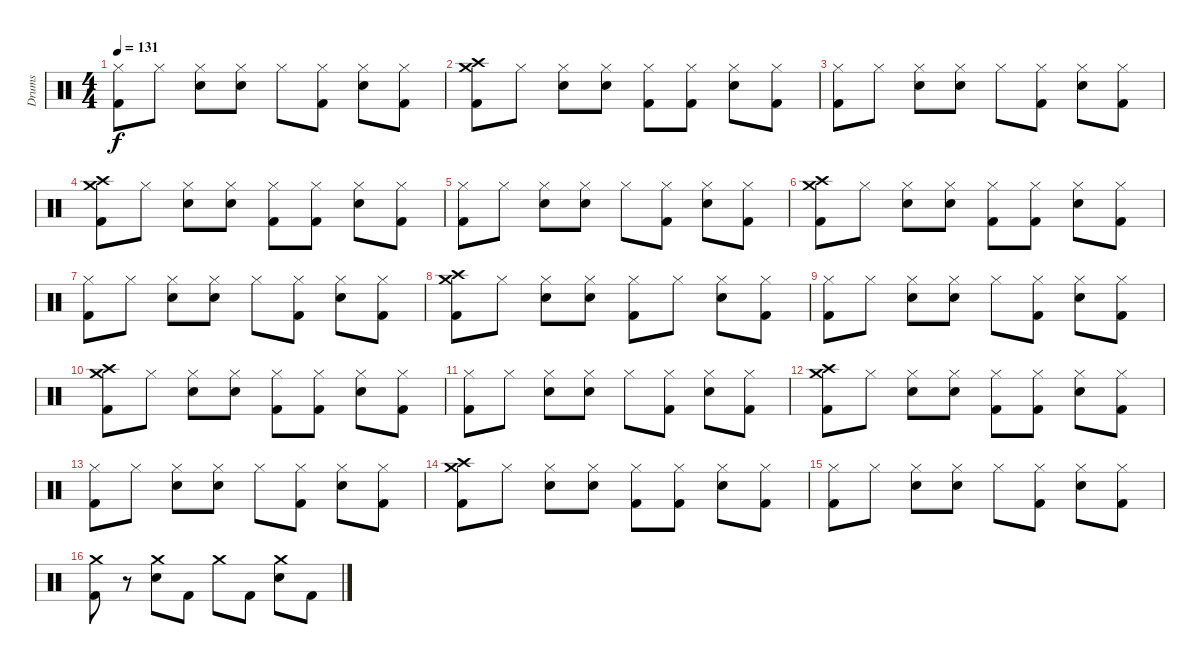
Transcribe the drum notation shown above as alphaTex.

\track ("Drums" "Drums") {instrument percussion}
\staff {score}
\articulation defaults
\ts (4 4)
\tempo 131
\clef neutral
\ks c
("Hi-Hat (closed)" "Kick (hit) 2").8{dy f} "Hi-Hat (closed)".8 ("Hi-Hat (closed)" "Snare (hit) 2").8 ("Hi-Hat (closed)" "Snare (hit) 2").8 "Hi-Hat (closed)".8 ("Hi-Hat (closed)" "Kick (hit) 2").8 ("Hi-Hat (closed)" "Snare (hit) 2").8 ("Hi-Hat (closed)" "Kick (hit) 2").8 |
("Crash high (hit)" "Crash medium (hit)" "Kick (hit) 2").8 "Hi-Hat (closed)".8 ("Hi-Hat (closed)" "Snare (hit) 2").8 ("Hi-Hat (closed)" "Snare (hit) 2").8 ("Hi-Hat (closed)" "Kick (hit) 2").8 ("Hi-Hat (closed)" "Kick (hit) 2").8 ("Hi-Hat (closed)" "Snare (hit) 2").8 ("Hi-Hat (closed)" "Kick (hit) 2").8 |
("Hi-Hat (closed)" "Kick (hit) 2").8 "Hi-Hat (closed)".8 ("Hi-Hat (closed)" "Snare (hit) 2").8 ("Hi-Hat (closed)" "Snare (hit) 2").8 "Hi-Hat (closed)".8 ("Hi-Hat (closed)" "Kick (hit) 2").8 ("Hi-Hat (closed)" "Snare (hit) 2").8 ("Hi-Hat (closed)" "Kick (hit) 2").8 |
("Crash high (hit)" "Crash medium (hit)" "Kick (hit) 2").8 "Hi-Hat (closed)".8 ("Hi-Hat (closed)" "Snare (hit) 2").8 ("Hi-Hat (closed)" "Snare (hit) 2").8 ("Hi-Hat (closed)" "Kick (hit) 2").8 ("Hi-Hat (closed)" "Kick (hit) 2").8 ("Hi-Hat (closed)" "Snare (hit) 2").8 ("Hi-Hat (closed)" "Kick (hit) 2").8 |
("Hi-Hat (closed)" "Kick (hit) 2").8 "Hi-Hat (closed)".8 ("Hi-Hat (closed)" "Snare (hit) 2").8 ("Hi-Hat (closed)" "Snare (hit) 2").8 "Hi-Hat (closed)".8 ("Hi-Hat (closed)" "Kick (hit) 2").8 ("Hi-Hat (closed)" "Snare (hit) 2").8 ("Hi-Hat (closed)" "Kick (hit) 2").8 |
("Crash high (hit)" "Crash medium (hit)" "Kick (hit) 2").8 "Hi-Hat (closed)".8 ("Hi-Hat (closed)" "Snare (hit) 2").8 ("Hi-Hat (closed)" "Snare (hit) 2").8 ("Hi-Hat (closed)" "Kick (hit) 2").8 ("Hi-Hat (closed)" "Kick (hit) 2").8 ("Hi-Hat (closed)" "Snare (hit) 2").8 ("Hi-Hat (closed)" "Kick (hit) 2").8 |
("Hi-Hat (closed)" "Kick (hit) 2").8 "Hi-Hat (closed)".8 ("Hi-Hat (closed)" "Snare (hit) 2").8 ("Hi-Hat (closed)" "Snare (hit) 2").8 "Hi-Hat (closed)".8 ("Hi-Hat (closed)" "Kick (hit) 2").8 ("Hi-Hat (closed)" "Snare (hit) 2").8 ("Hi-Hat (closed)" "Kick (hit) 2").8 |
("Crash high (hit)" "Crash medium (hit)" "Kick (hit) 2").8 "Hi-Hat (closed)".8 ("Hi-Hat (closed)" "Snare (hit) 2").8 ("Hi-Hat (closed)" "Snare (hit) 2").8 ("Hi-Hat (closed)" "Kick (hit) 2").8 "Hi-Hat (closed)".8 ("Hi-Hat (closed)" "Snare (hit) 2").8 ("Hi-Hat (closed)" "Kick (hit) 2").8 |
("Hi-Hat (closed)" "Kick (hit) 2").8 "Hi-Hat (closed)".8 ("Hi-Hat (closed)" "Snare (hit) 2").8 ("Hi-Hat (closed)" "Snare (hit) 2").8 "Hi-Hat (closed)".8 ("Hi-Hat (closed)" "Kick (hit) 2").8 ("Hi-Hat (closed)" "Snare (hit) 2").8 ("Hi-Hat (closed)" "Kick (hit) 2").8 |
("Crash high (hit)" "Crash medium (hit)" "Kick (hit) 2").8 "Hi-Hat (closed)".8 ("Hi-Hat (closed)" "Snare (hit) 2").8 ("Hi-Hat (closed)" "Snare (hit) 2").8 ("Hi-Hat (closed)" "Kick (hit) 2").8 ("Hi-Hat (closed)" "Kick (hit) 2").8 ("Hi-Hat (closed)" "Snare (hit) 2").8 ("Hi-Hat (closed)" "Kick (hit) 2").8 |
("Hi-Hat (closed)" "Kick (hit) 2").8 "Hi-Hat (closed)".8 ("Hi-Hat (closed)" "Snare (hit) 2").8 ("Hi-Hat (closed)" "Snare (hit) 2").8 "Hi-Hat (closed)".8 ("Hi-Hat (closed)" "Kick (hit) 2").8 ("Hi-Hat (closed)" "Snare (hit) 2").8 ("Hi-Hat (closed)" "Kick (hit) 2").8 |
("Crash high (hit)" "Crash medium (hit)" "Kick (hit) 2").8 "Hi-Hat (closed)".8 ("Hi-Hat (closed)" "Snare (hit) 2").8 ("Hi-Hat (closed)" "Snare (hit) 2").8 ("Hi-Hat (closed)" "Kick (hit) 2").8 ("Hi-Hat (closed)" "Kick (hit) 2").8 ("Hi-Hat (closed)" "Snare (hit) 2").8 ("Hi-Hat (closed)" "Kick (hit) 2").8 |
("Hi-Hat (closed)" "Kick (hit) 2").8 "Hi-Hat (closed)".8 ("Hi-Hat (closed)" "Snare (hit) 2").8 ("Hi-Hat (closed)" "Snare (hit) 2").8 "Hi-Hat (closed)".8 ("Hi-Hat (closed)" "Kick (hit) 2").8 ("Hi-Hat (closed)" "Snare (hit) 2").8 ("Hi-Hat (closed)" "Kick (hit) 2").8 |
("Crash high (hit)" "Crash medium (hit)" "Kick (hit) 2").8 "Hi-Hat (closed)".8 ("Hi-Hat (closed)" "Snare (hit) 2").8 ("Hi-Hat (closed)" "Snare (hit) 2").8 ("Hi-Hat (closed)" "Kick (hit) 2").8 ("Hi-Hat (closed)" "Kick (hit) 2").8 ("Hi-Hat (closed)" "Snare (hit) 2").8 ("Hi-Hat (closed)" "Kick (hit) 2").8 |
("Hi-Hat (closed)" "Kick (hit) 2").8 "Hi-Hat (closed)".8 ("Hi-Hat (closed)" "Snare (hit) 2").8 ("Hi-Hat (closed)" "Snare (hit) 2").8 "Hi-Hat (closed)".8 ("Hi-Hat (closed)" "Kick (hit) 2").8 ("Hi-Hat (closed)" "Snare (hit) 2").8 ("Hi-Hat (closed)" "Kick (hit) 2").8 |
("Crash medium (hit)" "Kick (hit) 2").8 r.8 ("Crash medium (hit)" "Snare (hit) 2").8 "Kick (hit) 2".8 "Crash medium (hit)".8 "Kick (hit) 2".8 ("Crash medium (hit)" "Snare (hit) 2").8 "Kick (hit) 2".8
